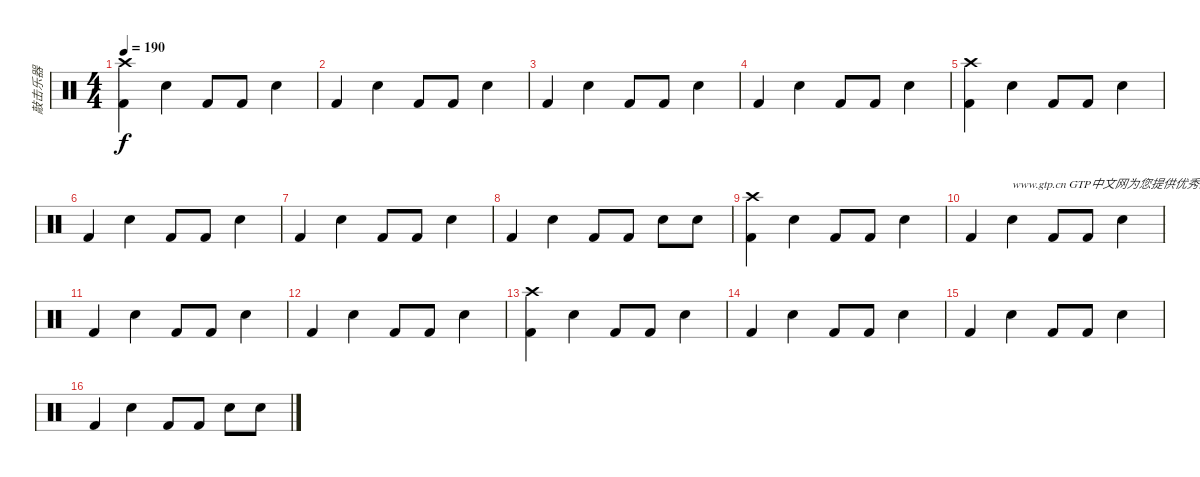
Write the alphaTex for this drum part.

\track ("敲击乐器" "敲击乐器") {instrument percussion}
\staff {score}
\articulation defaults
\ts (4 4)
\tempo 190
\clef neutral
\ks c
("Kick (hit) 2" "Crash high (hit)").4{dy f} "Snare (hit) 2".4 "Kick (hit) 2".8 "Kick (hit) 2".8 "Snare (hit) 2".4 |
"Kick (hit) 2".4 "Snare (hit) 2".4 "Kick (hit) 2".8 "Kick (hit) 2".8 "Snare (hit) 2".4 |
"Kick (hit) 2".4 "Snare (hit) 2".4 "Kick (hit) 2".8 "Kick (hit) 2".8 "Snare (hit) 2".4 |
"Kick (hit) 2".4 "Snare (hit) 2".4 "Kick (hit) 2".8 "Kick (hit) 2".8 "Snare (hit) 2".4 |
("Kick (hit) 2" "Crash high (hit)").4 "Snare (hit) 2".4 "Kick (hit) 2".8 "Kick (hit) 2".8 "Snare (hit) 2".4 |
"Kick (hit) 2".4 "Snare (hit) 2".4 "Kick (hit) 2".8 "Kick (hit) 2".8 "Snare (hit) 2".4 |
"Kick (hit) 2".4 "Snare (hit) 2".4 "Kick (hit) 2".8 "Kick (hit) 2".8 "Snare (hit) 2".4 |
"Kick (hit) 2".4 "Snare (hit) 2".4 "Kick (hit) 2".8 "Kick (hit) 2".8 "Snare (hit) 2".8 "Snare (hit) 2".8 |
("Kick (hit) 2" "Crash high (hit)").4 "Snare (hit) 2".4 "Kick (hit) 2".8 "Kick (hit) 2".8 "Snare (hit) 2".4 |
"Kick (hit) 2".4 "Snare (hit) 2".4{txt "www.gtp.cn GTP中文网为您提供优秀的谱子"} "Kick (hit) 2".8 "Kick (hit) 2".8 "Snare (hit) 2".4 |
"Kick (hit) 2".4 "Snare (hit) 2".4 "Kick (hit) 2".8 "Kick (hit) 2".8 "Snare (hit) 2".4 |
"Kick (hit) 2".4 "Snare (hit) 2".4 "Kick (hit) 2".8 "Kick (hit) 2".8 "Snare (hit) 2".4 |
("Kick (hit) 2" "Crash high (hit)").4 "Snare (hit) 2".4 "Kick (hit) 2".8 "Kick (hit) 2".8 "Snare (hit) 2".4 |
"Kick (hit) 2".4 "Snare (hit) 2".4 "Kick (hit) 2".8 "Kick (hit) 2".8 "Snare (hit) 2".4 |
"Kick (hit) 2".4 "Snare (hit) 2".4 "Kick (hit) 2".8 "Kick (hit) 2".8 "Snare (hit) 2".4 |
"Kick (hit) 2".4 "Snare (hit) 2".4 "Kick (hit) 2".8 "Kick (hit) 2".8 "Snare (hit) 2".8 "Snare (hit) 2".8
